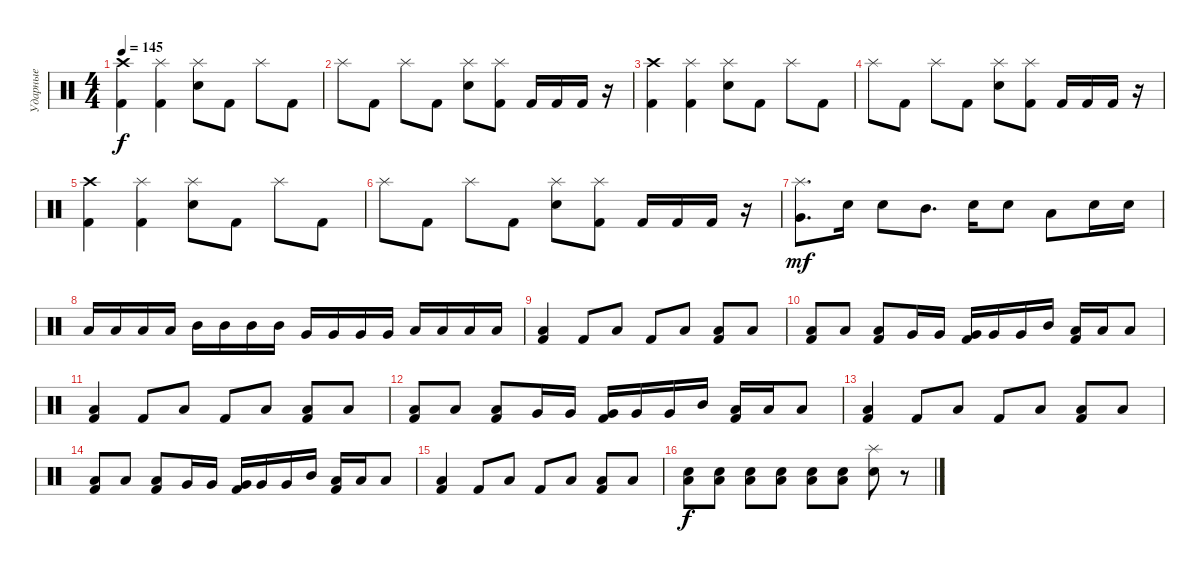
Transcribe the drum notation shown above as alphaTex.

\track ("Ударные" "Ударные") {instrument percussion}
\staff {score}
\articulation defaults
\ts (4 4)
\tempo 145
\clef neutral
\ks c
("Crash high (hit)" "Kick (hit) 2").4{dy f} ("Splash (hit)" "Kick (hit) 2").4 ("Splash (hit)" "Snare (hit) 2").8 "Kick (hit) 2".8 "Splash (hit)".8 "Kick (hit) 2".8 |
"Splash (hit)".8 "Kick (hit) 2".8 "Splash (hit)".8 "Kick (hit) 2".8 ("Splash (hit)" "Snare (hit) 2").8 ("Splash (hit)" "Kick (hit) 2").8 "Kick (hit) 2".16 "Kick (hit) 2".16 "Kick (hit) 2".16 r.16 |
("Crash high (hit)" "Kick (hit) 2").4 ("Splash (hit)" "Kick (hit) 2").4 ("Splash (hit)" "Snare (hit) 2").8 "Kick (hit) 2".8 "Splash (hit)".8 "Kick (hit) 2".8 |
"Splash (hit)".8 "Kick (hit) 2".8 "Splash (hit)".8 "Kick (hit) 2".8 ("Splash (hit)" "Snare (hit) 2").8 ("Splash (hit)" "Kick (hit) 2").8 "Kick (hit) 2".16 "Kick (hit) 2".16 "Kick (hit) 2".16 r.16 |
("Crash high (hit)" "Kick (hit) 2").4 ("Splash (hit)" "Kick (hit) 2").4 ("Splash (hit)" "Snare (hit) 2").8 "Kick (hit) 2".8 "Splash (hit)".8 "Kick (hit) 2".8 |
"Splash (hit)".8 "Kick (hit) 2".8 "Splash (hit)".8 "Kick (hit) 2".8 ("Splash (hit)" "Snare (hit) 2").8 ("Splash (hit)" "Kick (hit) 2").8 "Kick (hit) 2".16 "Kick (hit) 2".16 "Kick (hit) 2".16 r.16 |
("Splash (hit)" "Very Low Tom (hit)").8{d dy mf} "Snare (hit) 2".16 "Snare (hit) 2".8 "Mid Tom (hit)".8{d} "Snare (hit) 2".16 "Snare (hit) 2".8 "Low Tom (hit)".8 "Snare (hit) 2".16 "Snare (hit) 2".16 |
"Low Tom (hit)".16 "Low Tom (hit)".16 "Low Tom (hit)".16 "Low Tom (hit)".16 "Mid Tom (hit)".16 "Mid Tom (hit)".16 "Mid Tom (hit)".16 "Mid Tom (hit)".16 "Very Low Tom (hit)".16 "Very Low Tom (hit)".16 "Very Low Tom (hit)".16 "Very Low Tom (hit)".16 "Low Floor Tom (hit)".16 "Low Floor Tom (hit)".16 "Low Floor Tom (hit)".16 "Low Floor Tom (hit)".16 |
("Low Tom (hit)" "Kick (hit) 2").4 "Kick (hit) 2".8 "Low Tom (hit)".8 "Kick (hit) 2".8 "Low Tom (hit)".8 ("Low Tom (hit)" "Kick (hit) 2").8 "Low Tom (hit)".8 |
("Low Tom (hit)" "Kick (hit) 2").8 "Low Tom (hit)".8 ("Low Tom (hit)" "Kick (hit) 2").8 "Very Low Tom (hit)".16 "Very Low Tom (hit)".16 ("Very Low Tom (hit)" "Kick (hit) 2").16 "Very Low Tom (hit)".16 "Very Low Tom (hit)".16 "Mid Tom (hit)".16 ("Low Tom (hit)" "Kick (hit) 2").16 "Low Tom (hit)".16 "Low Tom (hit)".8 |
("Low Tom (hit)" "Kick (hit) 2").4 "Kick (hit) 2".8 "Low Tom (hit)".8 "Kick (hit) 2".8 "Low Tom (hit)".8 ("Low Tom (hit)" "Kick (hit) 2").8 "Low Tom (hit)".8 |
("Low Tom (hit)" "Kick (hit) 2").8 "Low Tom (hit)".8 ("Low Tom (hit)" "Kick (hit) 2").8 "Very Low Tom (hit)".16 "Very Low Tom (hit)".16 ("Very Low Tom (hit)" "Kick (hit) 2").16 "Very Low Tom (hit)".16 "Very Low Tom (hit)".16 "Mid Tom (hit)".16 ("Low Tom (hit)" "Kick (hit) 2").16 "Low Tom (hit)".16 "Low Tom (hit)".8 |
("Low Tom (hit)" "Kick (hit) 2").4 "Kick (hit) 2".8 "Low Tom (hit)".8 "Kick (hit) 2".8 "Low Tom (hit)".8 ("Low Tom (hit)" "Kick (hit) 2").8 "Low Tom (hit)".8 |
("Low Tom (hit)" "Kick (hit) 2").8 "Low Tom (hit)".8 ("Low Tom (hit)" "Kick (hit) 2").8 "Very Low Tom (hit)".16 "Very Low Tom (hit)".16 ("Very Low Tom (hit)" "Kick (hit) 2").16 "Very Low Tom (hit)".16 "Very Low Tom (hit)".16 "Mid Tom (hit)".16 ("Low Tom (hit)" "Kick (hit) 2").16 "Low Tom (hit)".16 "Low Tom (hit)".8 |
("Low Tom (hit)" "Kick (hit) 2").4 "Kick (hit) 2".8 "Low Tom (hit)".8 "Kick (hit) 2".8 "Low Tom (hit)".8 ("Low Tom (hit)" "Kick (hit) 2").8 "Low Tom (hit)".8 |
("Snare (hit) 2" "Low Tom (hit)").8{dy f} ("Snare (hit) 2" "Low Tom (hit)").8 ("Snare (hit) 2" "Low Tom (hit)").8 ("Snare (hit) 2" "Low Tom (hit)").8 ("Snare (hit) 2" "Low Tom (hit)").8 ("Snare (hit) 2" "Low Tom (hit)").8 ("Snare (hit) 2" "Splash (hit)").8 r.8
